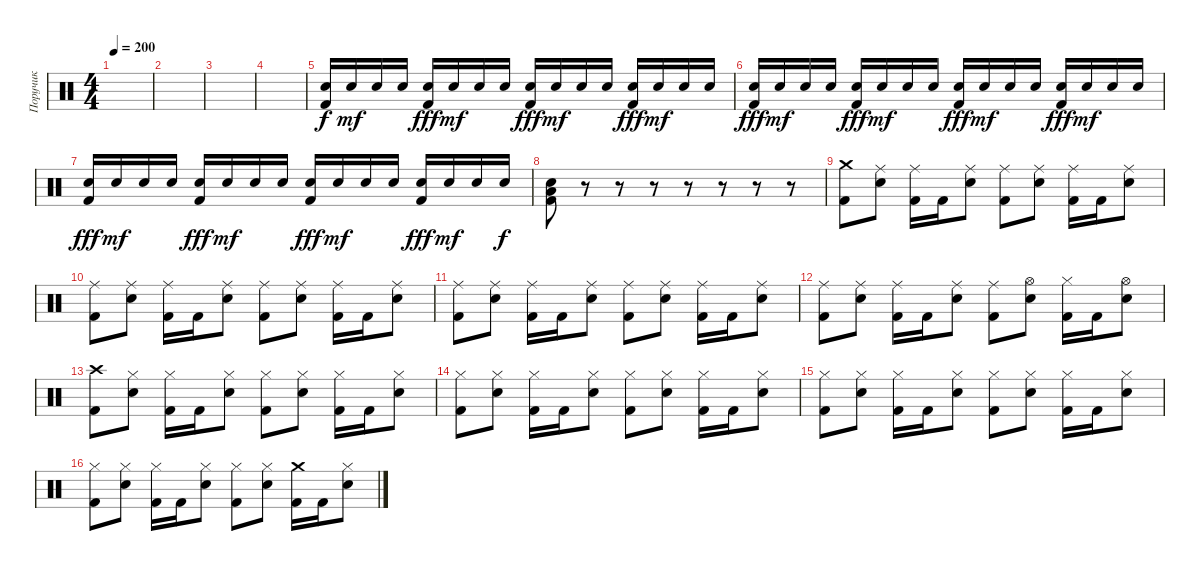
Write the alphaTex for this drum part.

\track ("Поручик" "Поручик") {instrument percussion}
\staff {score}
\articulation defaults
\ts (4 4)
\tempo 200
\clef neutral
\ks c
|
|
|
|
("Electric Snare (hit)" "Kick (hit) 2").16 "Electric Snare (hit)".16{dy mf} "Electric Snare (hit)".16 "Electric Snare (hit)".16 ("Electric Snare (hit)" "Kick (hit) 2").16{dy fff} "Electric Snare (hit)".16{dy mf} "Electric Snare (hit)".16 "Electric Snare (hit)".16 ("Electric Snare (hit)" "Kick (hit) 2").16{dy fff} "Electric Snare (hit)".16{dy mf} "Electric Snare (hit)".16 "Electric Snare (hit)".16 ("Electric Snare (hit)" "Kick (hit) 2").16{dy fff} "Electric Snare (hit)".16{dy mf} "Electric Snare (hit)".16 "Electric Snare (hit)".16 |
("Electric Snare (hit)" "Kick (hit) 2").16{dy fff} "Electric Snare (hit)".16{dy mf} "Electric Snare (hit)".16 "Electric Snare (hit)".16 ("Electric Snare (hit)" "Kick (hit) 2").16{dy fff} "Electric Snare (hit)".16{dy mf} "Electric Snare (hit)".16 "Electric Snare (hit)".16 ("Electric Snare (hit)" "Kick (hit) 2").16{dy fff} "Electric Snare (hit)".16{dy mf} "Electric Snare (hit)".16 "Electric Snare (hit)".16 ("Electric Snare (hit)" "Kick (hit) 2").16{dy fff} "Electric Snare (hit)".16{dy mf} "Electric Snare (hit)".16 "Electric Snare (hit)".16 |
("Electric Snare (hit)" "Kick (hit) 2").16{dy fff} "Electric Snare (hit)".16{dy mf} "Electric Snare (hit)".16 "Electric Snare (hit)".16 ("Electric Snare (hit)" "Kick (hit) 2").16{dy fff} "Electric Snare (hit)".16{dy mf} "Electric Snare (hit)".16 "Electric Snare (hit)".16 ("Electric Snare (hit)" "Kick (hit) 2").16{dy fff} "Electric Snare (hit)".16{dy mf} "Electric Snare (hit)".16 "Electric Snare (hit)".16 ("Electric Snare (hit)" "Kick (hit) 2").16{dy fff} "Electric Snare (hit)".16{dy mf} "Electric Snare (hit)".16 "Electric Snare (hit)".16{dy f} |
("Electric Snare (hit)" "Low Floor Tom (hit)" "Kick (hit) 2").8 r.8 r.8 r.8 r.8 r.8 r.8 r.8 |
("Crash medium (hit)" "Kick (hit) 2").8 ("Ride (middle)" "Electric Snare (hit)").8 ("Ride (middle)" "Kick (hit) 2").16 "Kick (hit) 2".16 ("Ride (middle)" "Electric Snare (hit)").8 ("Ride (middle)" "Kick (hit) 2").8 ("Ride (middle)" "Electric Snare (hit)").8 ("Ride (middle)" "Kick (hit) 2").16 "Kick (hit) 2".16 ("Ride (middle)" "Electric Snare (hit)").8 |
("Ride (middle)" "Kick (hit) 2").8 ("Ride (middle)" "Electric Snare (hit)").8 ("Ride (middle)" "Kick (hit) 2").16 "Kick (hit) 2".16 ("Ride (middle)" "Electric Snare (hit)").8 ("Ride (middle)" "Kick (hit) 2").8 ("Ride (middle)" "Electric Snare (hit)").8 ("Ride (middle)" "Kick (hit) 2").16 "Kick (hit) 2".16 ("Ride (middle)" "Electric Snare (hit)").8 |
("Ride (middle)" "Kick (hit) 2").8 ("Ride (middle)" "Electric Snare (hit)").8 ("Ride (middle)" "Kick (hit) 2").16 "Kick (hit) 2".16 ("Ride (middle)" "Electric Snare (hit)").8 ("Ride (middle)" "Kick (hit) 2").8 ("Ride (middle)" "Electric Snare (hit)").8 ("Ride (middle)" "Kick (hit) 2").16 "Kick (hit) 2".16 ("Ride (middle)" "Electric Snare (hit)").8 |
("Ride (middle)" "Kick (hit) 2").8 ("Ride (middle)" "Electric Snare (hit)").8 ("Ride (middle)" "Kick (hit) 2").16 "Kick (hit) 2".16 ("Ride (middle)" "Electric Snare (hit)").8 ("Ride (middle)" "Kick (hit) 2").8 ("Hi-Hat (open)" "Electric Snare (hit)").8 ("Hi-Hat (closed)" "Kick (hit) 2").16 "Kick (hit) 2".16 ("Hi-Hat (open)" "Electric Snare (hit)").8 |
("Crash high (hit)" "Kick (hit) 2").8 ("Hi-Hat (closed)" "Electric Snare (hit)").8 ("Hi-Hat (closed)" "Kick (hit) 2").16 "Kick (hit) 2".16 ("Hi-Hat (closed)" "Electric Snare (hit)").8 ("Hi-Hat (closed)" "Kick (hit) 2").8 ("Hi-Hat (closed)" "Electric Snare (hit)").8 ("Hi-Hat (closed)" "Kick (hit) 2").16 "Kick (hit) 2".16 ("Hi-Hat (closed)" "Electric Snare (hit)").8 |
("Hi-Hat (closed)" "Kick (hit) 2").8 ("Hi-Hat (closed)" "Electric Snare (hit)").8 ("Hi-Hat (closed)" "Kick (hit) 2").16 "Kick (hit) 2".16 ("Hi-Hat (closed)" "Electric Snare (hit)").8 ("Hi-Hat (closed)" "Kick (hit) 2").8 ("Hi-Hat (closed)" "Electric Snare (hit)").8 ("Hi-Hat (closed)" "Kick (hit) 2").16 "Kick (hit) 2".16 ("Hi-Hat (closed)" "Electric Snare (hit)").8 |
("Hi-Hat (closed)" "Kick (hit) 2").8 ("Hi-Hat (closed)" "Electric Snare (hit)").8 ("Hi-Hat (closed)" "Kick (hit) 2").16 "Kick (hit) 2".16 ("Hi-Hat (closed)" "Electric Snare (hit)").8 ("Hi-Hat (closed)" "Kick (hit) 2").8 ("Hi-Hat (closed)" "Electric Snare (hit)").8 ("Hi-Hat (closed)" "Kick (hit) 2").16 "Kick (hit) 2".16 ("Hi-Hat (closed)" "Electric Snare (hit)").8 |
("Hi-Hat (closed)" "Kick (hit) 2").8 ("Hi-Hat (closed)" "Electric Snare (hit)").8 ("Hi-Hat (closed)" "Kick (hit) 2").16 "Kick (hit) 2".16 ("Hi-Hat (closed)" "Electric Snare (hit)").8 ("Hi-Hat (closed)" "Kick (hit) 2").8 ("Hi-Hat (closed)" "Electric Snare (hit)").8 ("Crash medium (hit)" "Kick (hit) 2").16 "Kick (hit) 2".16 ("Hi-Hat (closed)" "Electric Snare (hit)").8
